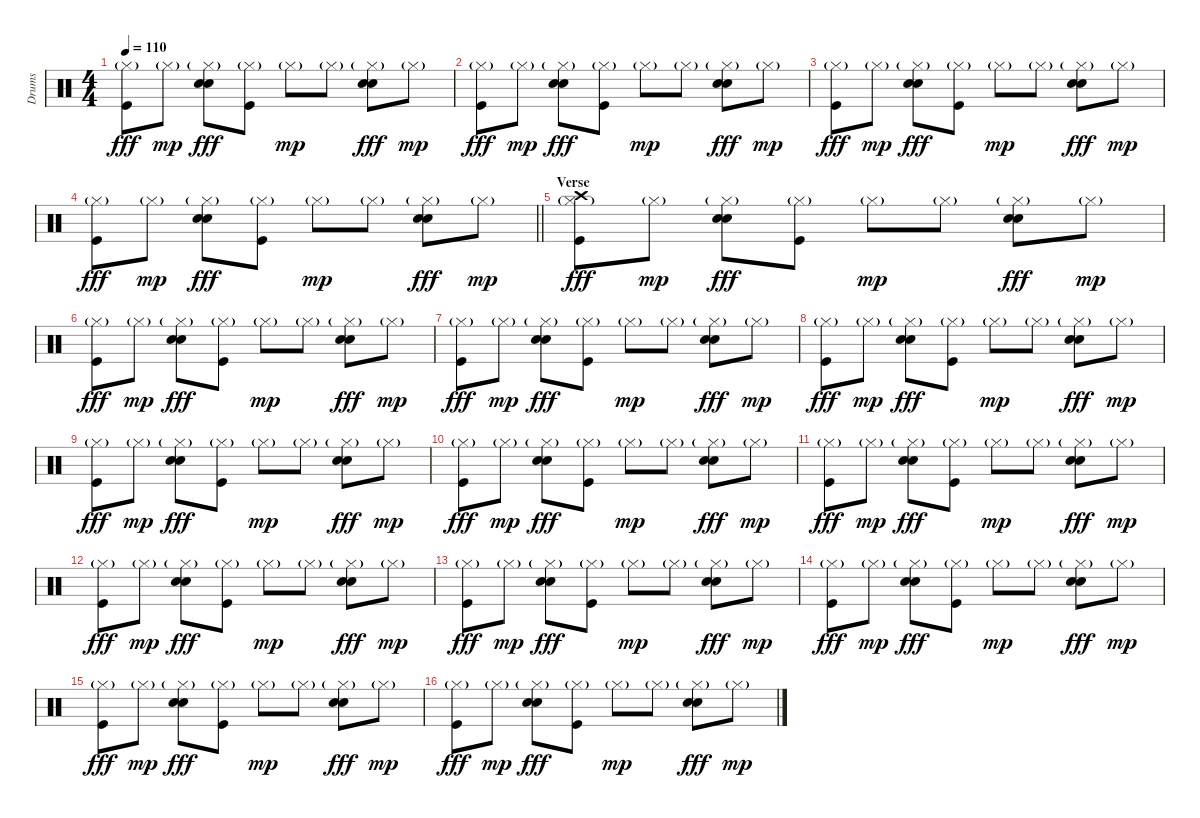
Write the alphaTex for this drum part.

\track ("Drums" "Drums") {instrument percussion}
\staff {score}
\articulation defaults
\ts (4 4)
\tempo 110
\clef neutral
\ks c
("Hi-Hat (closed)"{g} "Kick (hit)").8{dy fff} "Hi-Hat (closed)"{g}.8{dy mp} ("Hi-Hat (closed)"{g} "Electric Snare (hit)" "Hand Clap (hit)").8{dy fff} ("Hi-Hat (closed)"{g} "Kick (hit)").8 "Hi-Hat (closed)"{g}.8{dy mp} "Hi-Hat (closed)"{g}.8 ("Hi-Hat (closed)"{g} "Electric Snare (hit)" "Hand Clap (hit)").8{dy fff} "Hi-Hat (closed)"{g}.8{dy mp} |
("Hi-Hat (closed)"{g} "Kick (hit)").8{dy fff} "Hi-Hat (closed)"{g}.8{dy mp} ("Hi-Hat (closed)"{g} "Electric Snare (hit)" "Hand Clap (hit)").8{dy fff} ("Hi-Hat (closed)"{g} "Kick (hit)").8 "Hi-Hat (closed)"{g}.8{dy mp} "Hi-Hat (closed)"{g}.8 ("Hi-Hat (closed)"{g} "Electric Snare (hit)" "Hand Clap (hit)").8{dy fff} "Hi-Hat (closed)"{g}.8{dy mp} |
("Hi-Hat (closed)"{g} "Kick (hit)").8{dy fff} "Hi-Hat (closed)"{g}.8{dy mp} ("Hi-Hat (closed)"{g} "Electric Snare (hit)" "Hand Clap (hit)").8{dy fff} ("Hi-Hat (closed)"{g} "Kick (hit)").8 "Hi-Hat (closed)"{g}.8{dy mp} "Hi-Hat (closed)"{g}.8 ("Hi-Hat (closed)"{g} "Electric Snare (hit)" "Hand Clap (hit)").8{dy fff} "Hi-Hat (closed)"{g}.8{dy mp} |
\barLineRight lightlight
("Hi-Hat (closed)"{g} "Kick (hit)").8{dy fff} "Hi-Hat (closed)"{g}.8{dy mp} ("Hi-Hat (closed)"{g} "Electric Snare (hit)" "Hand Clap (hit)").8{dy fff} ("Hi-Hat (closed)"{g} "Kick (hit)").8 "Hi-Hat (closed)"{g}.8{dy mp} "Hi-Hat (closed)"{g}.8 ("Hi-Hat (closed)"{g} "Electric Snare (hit)" "Hand Clap (hit)").8{dy fff} "Hi-Hat (closed)"{g}.8{dy mp} |
\section ("" "Verse")
("Hi-Hat (closed)"{g} "Kick (hit)" "Crash high (hit)").8{dy fff} "Hi-Hat (closed)"{g}.8{dy mp} ("Hi-Hat (closed)"{g} "Electric Snare (hit)" "Hand Clap (hit)").8{dy fff} ("Hi-Hat (closed)"{g} "Kick (hit)").8 "Hi-Hat (closed)"{g}.8{dy mp} "Hi-Hat (closed)"{g}.8 ("Hi-Hat (closed)"{g} "Electric Snare (hit)" "Hand Clap (hit)").8{dy fff} "Hi-Hat (closed)"{g}.8{dy mp} |
("Hi-Hat (closed)"{g} "Kick (hit)").8{dy fff} "Hi-Hat (closed)"{g}.8{dy mp} ("Hi-Hat (closed)"{g} "Electric Snare (hit)" "Hand Clap (hit)").8{dy fff} ("Hi-Hat (closed)"{g} "Kick (hit)").8 "Hi-Hat (closed)"{g}.8{dy mp} "Hi-Hat (closed)"{g}.8 ("Hi-Hat (closed)"{g} "Electric Snare (hit)" "Hand Clap (hit)").8{dy fff} "Hi-Hat (closed)"{g}.8{dy mp} |
("Hi-Hat (closed)"{g} "Kick (hit)").8{dy fff} "Hi-Hat (closed)"{g}.8{dy mp} ("Hi-Hat (closed)"{g} "Electric Snare (hit)" "Hand Clap (hit)").8{dy fff} ("Hi-Hat (closed)"{g} "Kick (hit)").8 "Hi-Hat (closed)"{g}.8{dy mp} "Hi-Hat (closed)"{g}.8 ("Hi-Hat (closed)"{g} "Electric Snare (hit)" "Hand Clap (hit)").8{dy fff} "Hi-Hat (closed)"{g}.8{dy mp} |
("Hi-Hat (closed)"{g} "Kick (hit)").8{dy fff} "Hi-Hat (closed)"{g}.8{dy mp} ("Hi-Hat (closed)"{g} "Electric Snare (hit)" "Hand Clap (hit)").8{dy fff} ("Hi-Hat (closed)"{g} "Kick (hit)").8 "Hi-Hat (closed)"{g}.8{dy mp} "Hi-Hat (closed)"{g}.8 ("Hi-Hat (closed)"{g} "Electric Snare (hit)" "Hand Clap (hit)").8{dy fff} "Hi-Hat (closed)"{g}.8{dy mp} |
("Hi-Hat (closed)"{g} "Kick (hit)").8{dy fff} "Hi-Hat (closed)"{g}.8{dy mp} ("Hi-Hat (closed)"{g} "Electric Snare (hit)" "Hand Clap (hit)").8{dy fff} ("Hi-Hat (closed)"{g} "Kick (hit)").8 "Hi-Hat (closed)"{g}.8{dy mp} "Hi-Hat (closed)"{g}.8 ("Hi-Hat (closed)"{g} "Electric Snare (hit)" "Hand Clap (hit)").8{dy fff} "Hi-Hat (closed)"{g}.8{dy mp} |
("Hi-Hat (closed)"{g} "Kick (hit)").8{dy fff} "Hi-Hat (closed)"{g}.8{dy mp} ("Hi-Hat (closed)"{g} "Electric Snare (hit)" "Hand Clap (hit)").8{dy fff} ("Hi-Hat (closed)"{g} "Kick (hit)").8 "Hi-Hat (closed)"{g}.8{dy mp} "Hi-Hat (closed)"{g}.8 ("Hi-Hat (closed)"{g} "Electric Snare (hit)" "Hand Clap (hit)").8{dy fff} "Hi-Hat (closed)"{g}.8{dy mp} |
("Hi-Hat (closed)"{g} "Kick (hit)").8{dy fff} "Hi-Hat (closed)"{g}.8{dy mp} ("Hi-Hat (closed)"{g} "Electric Snare (hit)" "Hand Clap (hit)").8{dy fff} ("Hi-Hat (closed)"{g} "Kick (hit)").8 "Hi-Hat (closed)"{g}.8{dy mp} "Hi-Hat (closed)"{g}.8 ("Hi-Hat (closed)"{g} "Electric Snare (hit)" "Hand Clap (hit)").8{dy fff} "Hi-Hat (closed)"{g}.8{dy mp} |
("Hi-Hat (closed)"{g} "Kick (hit)").8{dy fff} "Hi-Hat (closed)"{g}.8{dy mp} ("Hi-Hat (closed)"{g} "Electric Snare (hit)" "Hand Clap (hit)").8{dy fff} ("Hi-Hat (closed)"{g} "Kick (hit)").8 "Hi-Hat (closed)"{g}.8{dy mp} "Hi-Hat (closed)"{g}.8 ("Hi-Hat (closed)"{g} "Electric Snare (hit)" "Hand Clap (hit)").8{dy fff} "Hi-Hat (closed)"{g}.8{dy mp} |
("Hi-Hat (closed)"{g} "Kick (hit)").8{dy fff} "Hi-Hat (closed)"{g}.8{dy mp} ("Hi-Hat (closed)"{g} "Electric Snare (hit)" "Hand Clap (hit)").8{dy fff} ("Hi-Hat (closed)"{g} "Kick (hit)").8 "Hi-Hat (closed)"{g}.8{dy mp} "Hi-Hat (closed)"{g}.8 ("Hi-Hat (closed)"{g} "Electric Snare (hit)" "Hand Clap (hit)").8{dy fff} "Hi-Hat (closed)"{g}.8{dy mp} |
("Hi-Hat (closed)"{g} "Kick (hit)").8{dy fff} "Hi-Hat (closed)"{g}.8{dy mp} ("Hi-Hat (closed)"{g} "Electric Snare (hit)" "Hand Clap (hit)").8{dy fff} ("Hi-Hat (closed)"{g} "Kick (hit)").8 "Hi-Hat (closed)"{g}.8{dy mp} "Hi-Hat (closed)"{g}.8 ("Hi-Hat (closed)"{g} "Electric Snare (hit)" "Hand Clap (hit)").8{dy fff} "Hi-Hat (closed)"{g}.8{dy mp} |
("Hi-Hat (closed)"{g} "Kick (hit)").8{dy fff} "Hi-Hat (closed)"{g}.8{dy mp} ("Hi-Hat (closed)"{g} "Electric Snare (hit)" "Hand Clap (hit)").8{dy fff} ("Hi-Hat (closed)"{g} "Kick (hit)").8 "Hi-Hat (closed)"{g}.8{dy mp} "Hi-Hat (closed)"{g}.8 ("Hi-Hat (closed)"{g} "Electric Snare (hit)" "Hand Clap (hit)").8{dy fff} "Hi-Hat (closed)"{g}.8{dy mp} |
("Hi-Hat (closed)"{g} "Kick (hit)").8{dy fff} "Hi-Hat (closed)"{g}.8{dy mp} ("Hi-Hat (closed)"{g} "Electric Snare (hit)" "Hand Clap (hit)").8{dy fff} ("Hi-Hat (closed)"{g} "Kick (hit)").8 "Hi-Hat (closed)"{g}.8{dy mp} "Hi-Hat (closed)"{g}.8 ("Hi-Hat (closed)"{g} "Electric Snare (hit)" "Hand Clap (hit)").8{dy fff} "Hi-Hat (closed)"{g}.8{dy mp}
